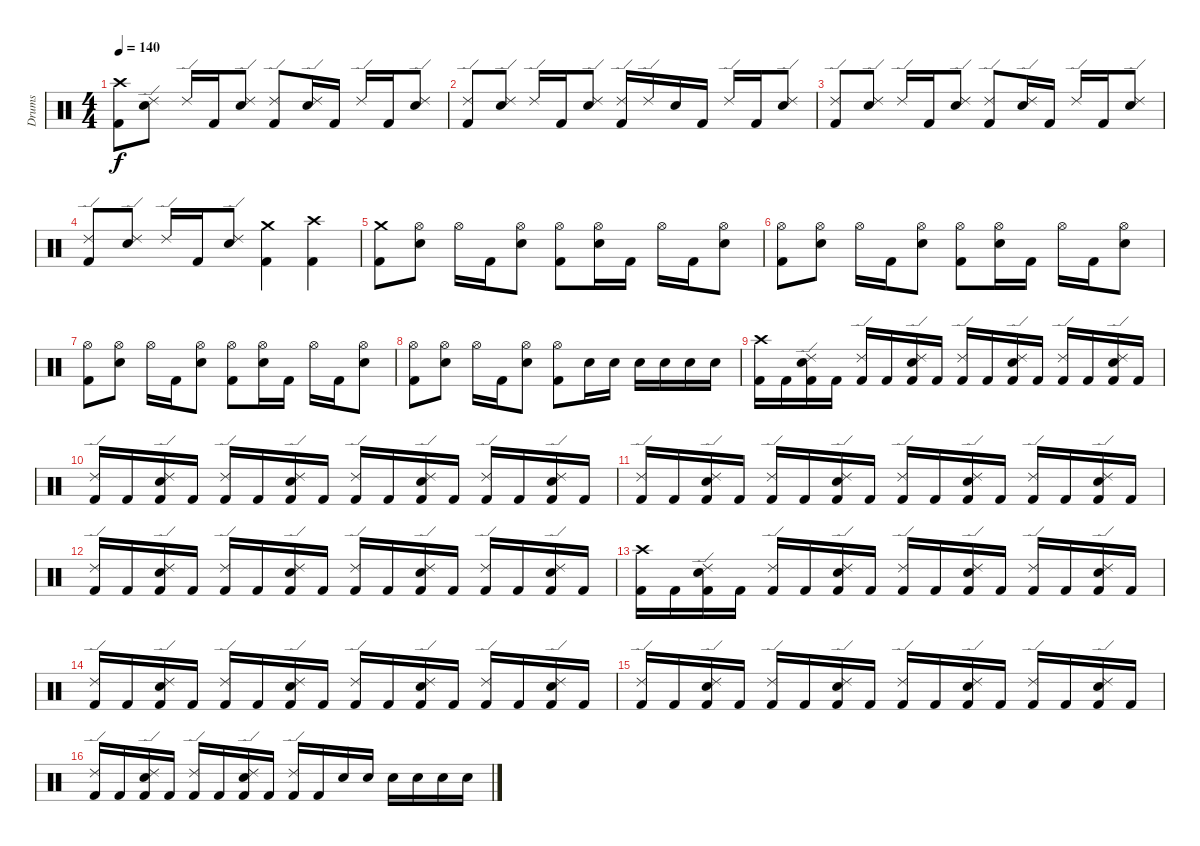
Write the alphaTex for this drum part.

\track ("Drums" "Drums") {instrument percussion}
\staff {score}
\articulation defaults
\ts (4 4)
\tempo 140
\clef neutral
\ks c
("Crash high (hit)" "Kick (hit) 2").8{dy f} ("Ride (edge) 2" "Electric Snare (hit)").8 "Ride (edge) 2".16 "Kick (hit) 2".16 ("Ride (edge) 2" "Electric Snare (hit)").8 ("Ride (edge) 2" "Kick (hit) 2").8 ("Ride (edge) 2" "Electric Snare (hit)").16 "Kick (hit) 2".16 "Ride (edge) 2".16 "Kick (hit) 2".16 ("Ride (edge) 2" "Electric Snare (hit)").8 |
("Ride (edge) 2" "Kick (hit) 2").8 ("Ride (edge) 2" "Electric Snare (hit)").8 "Ride (edge) 2".16 "Kick (hit) 2".16 ("Ride (edge) 2" "Electric Snare (hit)").8 ("Ride (edge) 2" "Kick (hit) 2").16 "Ride (edge) 2".16 "Electric Snare (hit)".16 "Kick (hit) 2".16 "Ride (edge) 2".16 "Kick (hit) 2".16 ("Ride (edge) 2" "Electric Snare (hit)").8 |
("Ride (edge) 2" "Kick (hit) 2").8 ("Ride (edge) 2" "Electric Snare (hit)").8 "Ride (edge) 2".16 "Kick (hit) 2".16 ("Ride (edge) 2" "Electric Snare (hit)").8 ("Ride (edge) 2" "Kick (hit) 2").8 ("Ride (edge) 2" "Electric Snare (hit)").16 "Kick (hit) 2".16 "Ride (edge) 2".16 "Kick (hit) 2".16 ("Ride (edge) 2" "Electric Snare (hit)").8 |
("Ride (edge) 2" "Kick (hit) 2").8 ("Ride (edge) 2" "Electric Snare (hit)").8 "Ride (edge) 2".16 "Kick (hit) 2".16 ("Ride (edge) 2" "Electric Snare (hit)").8 ("Crash medium (hit)" "Kick (hit) 2").4 ("Crash high (hit)" "Kick (hit) 2").4 |
("Crash medium (hit)" "Kick (hit) 2").8 ("Hi-Hat (open)" "Electric Snare (hit)").8 "Hi-Hat (open)".16 "Kick (hit) 2".16 ("Hi-Hat (open)" "Electric Snare (hit)").8 ("Hi-Hat (open)" "Kick (hit) 2").8 ("Hi-Hat (open)" "Electric Snare (hit)").16 "Kick (hit) 2".16 "Hi-Hat (open)".16 "Kick (hit) 2".16 ("Hi-Hat (open)" "Electric Snare (hit)").8 |
("Hi-Hat (open)" "Kick (hit) 2").8 ("Hi-Hat (open)" "Electric Snare (hit)").8 "Hi-Hat (open)".16 "Kick (hit) 2".16 ("Hi-Hat (open)" "Electric Snare (hit)").8 ("Hi-Hat (open)" "Kick (hit) 2").8 ("Hi-Hat (open)" "Electric Snare (hit)").16 "Kick (hit) 2".16 "Hi-Hat (open)".16 "Kick (hit) 2".16 ("Hi-Hat (open)" "Electric Snare (hit)").8 |
("Hi-Hat (open)" "Kick (hit) 2").8 ("Hi-Hat (open)" "Electric Snare (hit)").8 "Hi-Hat (open)".16 "Kick (hit) 2".16 ("Hi-Hat (open)" "Electric Snare (hit)").8 ("Hi-Hat (open)" "Kick (hit) 2").8 ("Hi-Hat (open)" "Electric Snare (hit)").16 "Kick (hit) 2".16 "Hi-Hat (open)".16 "Kick (hit) 2".16 ("Hi-Hat (open)" "Electric Snare (hit)").8 |
("Hi-Hat (open)" "Kick (hit) 2").8 ("Hi-Hat (open)" "Electric Snare (hit)").8 "Hi-Hat (open)".16 "Kick (hit) 2".16 ("Hi-Hat (open)" "Electric Snare (hit)").8 ("Hi-Hat (open)" "Kick (hit) 2").8 "Electric Snare (hit)".16 "Electric Snare (hit)".16 "Electric Snare (hit)".16 "Electric Snare (hit)".16 "Electric Snare (hit)".16 "Electric Snare (hit)".16 |
("Crash high (hit)" "Kick (hit) 2").16 "Kick (hit) 2".16 ("Ride (edge) 2" "Electric Snare (hit)" "Kick (hit) 2").16 "Kick (hit) 2".16 ("Ride (edge) 2" "Kick (hit) 2").16 "Kick (hit) 2".16 ("Ride (edge) 2" "Electric Snare (hit)" "Kick (hit) 2").16 "Kick (hit) 2".16 ("Ride (edge) 2" "Kick (hit) 2").16 "Kick (hit) 2".16 ("Ride (edge) 2" "Electric Snare (hit)" "Kick (hit) 2").16 "Kick (hit) 2".16 ("Ride (edge) 2" "Kick (hit) 2").16 "Kick (hit) 2".16 ("Ride (edge) 2" "Electric Snare (hit)" "Kick (hit) 2").16 "Kick (hit) 2".16 |
("Ride (edge) 2" "Kick (hit) 2").16 "Kick (hit) 2".16 ("Ride (edge) 2" "Electric Snare (hit)" "Kick (hit) 2").16 "Kick (hit) 2".16 ("Ride (edge) 2" "Kick (hit) 2").16 "Kick (hit) 2".16 ("Ride (edge) 2" "Electric Snare (hit)" "Kick (hit) 2").16 "Kick (hit) 2".16 ("Ride (edge) 2" "Kick (hit) 2").16 "Kick (hit) 2".16 ("Ride (edge) 2" "Electric Snare (hit)" "Kick (hit) 2").16 "Kick (hit) 2".16 ("Ride (edge) 2" "Kick (hit) 2").16 "Kick (hit) 2".16 ("Ride (edge) 2" "Electric Snare (hit)" "Kick (hit) 2").16 "Kick (hit) 2".16 |
("Ride (edge) 2" "Kick (hit) 2").16 "Kick (hit) 2".16 ("Ride (edge) 2" "Electric Snare (hit)" "Kick (hit) 2").16 "Kick (hit) 2".16 ("Ride (edge) 2" "Kick (hit) 2").16 "Kick (hit) 2".16 ("Ride (edge) 2" "Electric Snare (hit)" "Kick (hit) 2").16 "Kick (hit) 2".16 ("Ride (edge) 2" "Kick (hit) 2").16 "Kick (hit) 2".16 ("Ride (edge) 2" "Electric Snare (hit)" "Kick (hit) 2").16 "Kick (hit) 2".16 ("Ride (edge) 2" "Kick (hit) 2").16 "Kick (hit) 2".16 ("Ride (edge) 2" "Electric Snare (hit)" "Kick (hit) 2").16 "Kick (hit) 2".16 |
("Ride (edge) 2" "Kick (hit) 2").16 "Kick (hit) 2".16 ("Ride (edge) 2" "Electric Snare (hit)" "Kick (hit) 2").16 "Kick (hit) 2".16 ("Ride (edge) 2" "Kick (hit) 2").16 "Kick (hit) 2".16 ("Ride (edge) 2" "Electric Snare (hit)" "Kick (hit) 2").16 "Kick (hit) 2".16 ("Ride (edge) 2" "Kick (hit) 2").16 "Kick (hit) 2".16 ("Ride (edge) 2" "Electric Snare (hit)" "Kick (hit) 2").16 "Kick (hit) 2".16 ("Ride (edge) 2" "Kick (hit) 2").16 "Kick (hit) 2".16 ("Ride (edge) 2" "Electric Snare (hit)" "Kick (hit) 2").16 "Kick (hit) 2".16 |
("Crash high (hit)" "Kick (hit) 2").16 "Kick (hit) 2".16 ("Ride (edge) 2" "Electric Snare (hit)" "Kick (hit) 2").16 "Kick (hit) 2".16 ("Ride (edge) 2" "Kick (hit) 2").16 "Kick (hit) 2".16 ("Ride (edge) 2" "Electric Snare (hit)" "Kick (hit) 2").16 "Kick (hit) 2".16 ("Ride (edge) 2" "Kick (hit) 2").16 "Kick (hit) 2".16 ("Ride (edge) 2" "Electric Snare (hit)" "Kick (hit) 2").16 "Kick (hit) 2".16 ("Ride (edge) 2" "Kick (hit) 2").16 "Kick (hit) 2".16 ("Ride (edge) 2" "Electric Snare (hit)" "Kick (hit) 2").16 "Kick (hit) 2".16 |
("Ride (edge) 2" "Kick (hit) 2").16 "Kick (hit) 2".16 ("Ride (edge) 2" "Electric Snare (hit)" "Kick (hit) 2").16 "Kick (hit) 2".16 ("Ride (edge) 2" "Kick (hit) 2").16 "Kick (hit) 2".16 ("Ride (edge) 2" "Electric Snare (hit)" "Kick (hit) 2").16 "Kick (hit) 2".16 ("Ride (edge) 2" "Kick (hit) 2").16 "Kick (hit) 2".16 ("Ride (edge) 2" "Electric Snare (hit)" "Kick (hit) 2").16 "Kick (hit) 2".16 ("Ride (edge) 2" "Kick (hit) 2").16 "Kick (hit) 2".16 ("Ride (edge) 2" "Electric Snare (hit)" "Kick (hit) 2").16 "Kick (hit) 2".16 |
("Ride (edge) 2" "Kick (hit) 2").16 "Kick (hit) 2".16 ("Ride (edge) 2" "Electric Snare (hit)" "Kick (hit) 2").16 "Kick (hit) 2".16 ("Ride (edge) 2" "Kick (hit) 2").16 "Kick (hit) 2".16 ("Ride (edge) 2" "Electric Snare (hit)" "Kick (hit) 2").16 "Kick (hit) 2".16 ("Ride (edge) 2" "Kick (hit) 2").16 "Kick (hit) 2".16 ("Ride (edge) 2" "Electric Snare (hit)" "Kick (hit) 2").16 "Kick (hit) 2".16 ("Ride (edge) 2" "Kick (hit) 2").16 "Kick (hit) 2".16 ("Ride (edge) 2" "Electric Snare (hit)" "Kick (hit) 2").16 "Kick (hit) 2".16 |
("Ride (edge) 2" "Kick (hit) 2").16 "Kick (hit) 2".16 ("Ride (edge) 2" "Electric Snare (hit)" "Kick (hit) 2").16 "Kick (hit) 2".16 ("Ride (edge) 2" "Kick (hit) 2").16 "Kick (hit) 2".16 ("Ride (edge) 2" "Electric Snare (hit)" "Kick (hit) 2").16 "Kick (hit) 2".16 ("Ride (edge) 2" "Kick (hit) 2").16 "Kick (hit) 2".16 "Electric Snare (hit)".16 "Electric Snare (hit)".16 "Electric Snare (hit)".16 "Electric Snare (hit)".16 "Electric Snare (hit)".16 "Electric Snare (hit)".16
